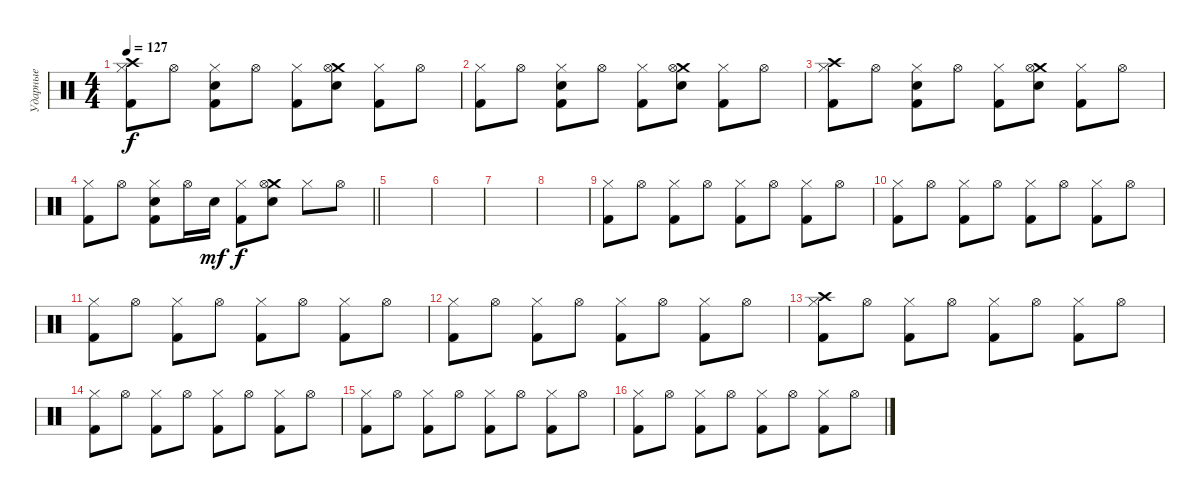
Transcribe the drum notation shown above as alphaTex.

\track ("Ударные" "Ударные") {instrument percussion}
\staff {score}
\articulation defaults
\ts (4 4)
\tempo 127
\clef neutral
\ks c
("Crash high (hit)" "Hi-Hat (closed)" "Kick (hit) 2").8{dy f} "Hi-Hat (open)".8 ("Hi-Hat (closed)" "Electric Snare (hit)" "Kick (hit) 2").8 "Hi-Hat (open)".8 ("Hi-Hat (closed)" "Kick (hit) 2").8 ("Crash medium (hit)" "Hi-Hat (open)" "Electric Snare (hit)").8 ("Hi-Hat (closed)" "Kick (hit) 2").8 "Hi-Hat (open)".8 |
("Hi-Hat (closed)" "Kick (hit) 2").8 "Hi-Hat (open)".8 ("Hi-Hat (closed)" "Electric Snare (hit)" "Kick (hit) 2").8 "Hi-Hat (open)".8 ("Hi-Hat (closed)" "Kick (hit) 2").8 ("Crash medium (hit)" "Hi-Hat (open)" "Electric Snare (hit)").8 ("Hi-Hat (closed)" "Kick (hit) 2").8 "Hi-Hat (open)".8 |
("Crash high (hit)" "Hi-Hat (closed)" "Kick (hit) 2").8 "Hi-Hat (open)".8 ("Hi-Hat (closed)" "Electric Snare (hit)" "Kick (hit) 2").8 "Hi-Hat (open)".8 ("Hi-Hat (closed)" "Kick (hit) 2").8 ("Crash medium (hit)" "Hi-Hat (open)" "Electric Snare (hit)").8 ("Hi-Hat (closed)" "Kick (hit) 2").8 "Hi-Hat (open)".8 |
\barLineRight lightlight
("Hi-Hat (closed)" "Kick (hit) 2").8 "Hi-Hat (open)".8 ("Hi-Hat (closed)" "Electric Snare (hit)" "Kick (hit) 2").8 "Hi-Hat (open)".16 "Electric Snare (hit)".16{dy mf} ("Hi-Hat (closed)" "Kick (hit) 2").8{dy f} ("Crash medium (hit)" "Hi-Hat (open)" "Electric Snare (hit)").8 "Hi-Hat (closed)".8 "Hi-Hat (open)".8 |
|
|
|
|
("Hi-Hat (closed)" "Kick (hit) 2").8 "Hi-Hat (open)".8 ("Hi-Hat (closed)" "Kick (hit) 2").8 "Hi-Hat (open)".8 ("Hi-Hat (closed)" "Kick (hit) 2").8 "Hi-Hat (open)".8 ("Hi-Hat (closed)" "Kick (hit) 2").8 "Hi-Hat (open)".8 |
("Hi-Hat (closed)" "Kick (hit) 2").8 "Hi-Hat (open)".8 ("Hi-Hat (closed)" "Kick (hit) 2").8 "Hi-Hat (open)".8 ("Hi-Hat (closed)" "Kick (hit) 2").8 "Hi-Hat (open)".8 ("Hi-Hat (closed)" "Kick (hit) 2").8 "Hi-Hat (open)".8 |
("Hi-Hat (closed)" "Kick (hit) 2").8 "Hi-Hat (open)".8 ("Hi-Hat (closed)" "Kick (hit) 2").8 "Hi-Hat (open)".8 ("Hi-Hat (closed)" "Kick (hit) 2").8 "Hi-Hat (open)".8 ("Hi-Hat (closed)" "Kick (hit) 2").8 "Hi-Hat (open)".8 |
("Hi-Hat (closed)" "Kick (hit) 2").8 "Hi-Hat (open)".8 ("Hi-Hat (closed)" "Kick (hit) 2").8 "Hi-Hat (open)".8 ("Hi-Hat (closed)" "Kick (hit) 2").8 "Hi-Hat (open)".8 ("Hi-Hat (closed)" "Kick (hit) 2").8 "Hi-Hat (open)".8 |
("Crash high (hit)" "Hi-Hat (closed)" "Kick (hit) 2").8 "Hi-Hat (open)".8 ("Hi-Hat (closed)" "Kick (hit) 2").8 "Hi-Hat (open)".8 ("Hi-Hat (closed)" "Kick (hit) 2").8 "Hi-Hat (open)".8 ("Hi-Hat (closed)" "Kick (hit) 2").8 "Hi-Hat (open)".8 |
("Hi-Hat (closed)" "Kick (hit) 2").8 "Hi-Hat (open)".8 ("Hi-Hat (closed)" "Kick (hit) 2").8 "Hi-Hat (open)".8 ("Hi-Hat (closed)" "Kick (hit) 2").8 "Hi-Hat (open)".8 ("Hi-Hat (closed)" "Kick (hit) 2").8 "Hi-Hat (open)".8 |
("Hi-Hat (closed)" "Kick (hit) 2").8 "Hi-Hat (open)".8 ("Hi-Hat (closed)" "Kick (hit) 2").8 "Hi-Hat (open)".8 ("Hi-Hat (closed)" "Kick (hit) 2").8 "Hi-Hat (open)".8 ("Hi-Hat (closed)" "Kick (hit) 2").8 "Hi-Hat (open)".8 |
("Hi-Hat (closed)" "Kick (hit) 2").8 "Hi-Hat (open)".8 ("Hi-Hat (closed)" "Kick (hit) 2").8 "Hi-Hat (open)".8 ("Hi-Hat (closed)" "Kick (hit) 2").8 "Hi-Hat (open)".8 ("Hi-Hat (closed)" "Kick (hit) 2").8 "Hi-Hat (open)".8
